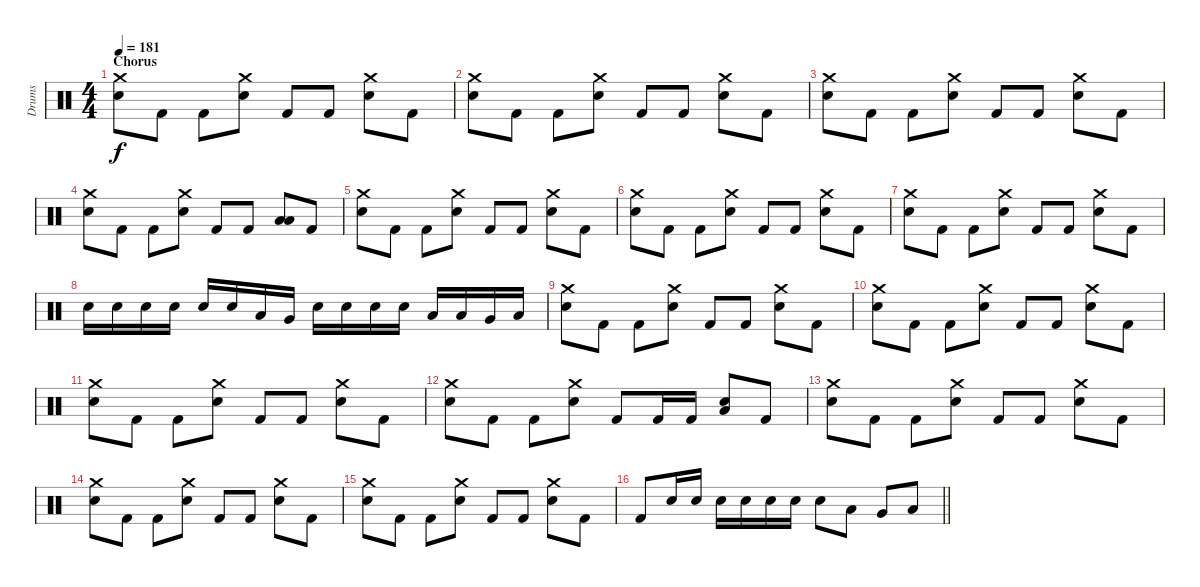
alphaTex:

\track ("Drums" "Drums") {instrument percussion}
\staff {score}
\articulation defaults
\ts (4 4)
\section ("" "Chorus")
\tempo 181
\clef neutral
\ks c
("Electric Snare (hit)" "Crash medium (hit)").8{dy f} "Kick (hit) 2".8 "Kick (hit) 2".8 ("Electric Snare (hit)" "Crash medium (hit)").8 "Kick (hit) 2".8 "Kick (hit) 2".8 ("Electric Snare (hit)" "Crash medium (hit)").8 "Kick (hit) 2".8 |
("Electric Snare (hit)" "Crash medium (hit)").8 "Kick (hit) 2".8 "Kick (hit) 2".8 ("Electric Snare (hit)" "Crash medium (hit)").8 "Kick (hit) 2".8 "Kick (hit) 2".8 ("Electric Snare (hit)" "Crash medium (hit)").8 "Kick (hit) 2".8 |
("Electric Snare (hit)" "Crash medium (hit)").8 "Kick (hit) 2".8 "Kick (hit) 2".8 ("Electric Snare (hit)" "Crash medium (hit)").8 "Kick (hit) 2".8 "Kick (hit) 2".8 ("Electric Snare (hit)" "Crash medium (hit)").8 "Kick (hit) 2".8 |
("Electric Snare (hit)" "Crash medium (hit)").8 "Kick (hit) 2".8 "Kick (hit) 2".8 ("Electric Snare (hit)" "Crash medium (hit)").8 "Kick (hit) 2".8 "Kick (hit) 2".8 ("Low Tom (hit)" "Low Floor Tom (hit)").8 "Kick (hit) 2".8 |
("Electric Snare (hit)" "Crash medium (hit)").8 "Kick (hit) 2".8 "Kick (hit) 2".8 ("Electric Snare (hit)" "Crash medium (hit)").8 "Kick (hit) 2".8 "Kick (hit) 2".8 ("Electric Snare (hit)" "Crash medium (hit)").8 "Kick (hit) 2".8 |
("Electric Snare (hit)" "Crash medium (hit)").8 "Kick (hit) 2".8 "Kick (hit) 2".8 ("Electric Snare (hit)" "Crash medium (hit)").8 "Kick (hit) 2".8 "Kick (hit) 2".8 ("Electric Snare (hit)" "Crash medium (hit)").8 "Kick (hit) 2".8 |
("Electric Snare (hit)" "Crash medium (hit)").8 "Kick (hit) 2".8 "Kick (hit) 2".8 ("Electric Snare (hit)" "Crash medium (hit)").8 "Kick (hit) 2".8 "Kick (hit) 2".8 ("Electric Snare (hit)" "Crash medium (hit)").8 "Kick (hit) 2".8 |
"Electric Snare (hit)".16 "Electric Snare (hit)".16 "Electric Snare (hit)".16 "Electric Snare (hit)".16 "Electric Snare (hit)".16 "Electric Snare (hit)".16 "Low Tom (hit)".16 "Very Low Tom (hit)".16 "Electric Snare (hit)".16 "Electric Snare (hit)".16 "Electric Snare (hit)".16 "Electric Snare (hit)".16 "Low Tom (hit)".16 "Low Tom (hit)".16 "Very Low Tom (hit)".16 "Low Floor Tom (hit)".16 |
("Electric Snare (hit)" "Crash medium (hit)").8 "Kick (hit) 2".8 "Kick (hit) 2".8 ("Electric Snare (hit)" "Crash medium (hit)").8 "Kick (hit) 2".8 "Kick (hit) 2".8 ("Electric Snare (hit)" "Crash medium (hit)").8 "Kick (hit) 2".8 |
("Electric Snare (hit)" "Crash medium (hit)").8 "Kick (hit) 2".8 "Kick (hit) 2".8 ("Electric Snare (hit)" "Crash medium (hit)").8 "Kick (hit) 2".8 "Kick (hit) 2".8 ("Electric Snare (hit)" "Crash medium (hit)").8 "Kick (hit) 2".8 |
("Electric Snare (hit)" "Crash medium (hit)").8 "Kick (hit) 2".8 "Kick (hit) 2".8 ("Electric Snare (hit)" "Crash medium (hit)").8 "Kick (hit) 2".8 "Kick (hit) 2".8 ("Electric Snare (hit)" "Crash medium (hit)").8 "Kick (hit) 2".8 |
("Electric Snare (hit)" "Crash medium (hit)").8 "Kick (hit) 2".8 "Kick (hit) 2".8 ("Electric Snare (hit)" "Crash medium (hit)").8 "Kick (hit) 2".8 "Kick (hit) 2".16 "Kick (hit) 2".16 ("Electric Snare (hit)" "Low Floor Tom (hit)").8 "Kick (hit) 2".8 |
("Electric Snare (hit)" "Crash medium (hit)").8 "Kick (hit) 2".8 "Kick (hit) 2".8 ("Electric Snare (hit)" "Crash medium (hit)").8 "Kick (hit) 2".8 "Kick (hit) 2".8 ("Electric Snare (hit)" "Crash medium (hit)").8 "Kick (hit) 2".8 |
("Electric Snare (hit)" "Crash medium (hit)").8 "Kick (hit) 2".8 "Kick (hit) 2".8 ("Electric Snare (hit)" "Crash medium (hit)").8 "Kick (hit) 2".8 "Kick (hit) 2".8 ("Electric Snare (hit)" "Crash medium (hit)").8 "Kick (hit) 2".8 |
("Electric Snare (hit)" "Crash medium (hit)").8 "Kick (hit) 2".8 "Kick (hit) 2".8 ("Electric Snare (hit)" "Crash medium (hit)").8 "Kick (hit) 2".8 "Kick (hit) 2".8 ("Electric Snare (hit)" "Crash medium (hit)").8 "Kick (hit) 2".8 |
\barLineRight lightlight "Kick (hit) 2".8 "Electric Snare (hit)".16 "Electric Snare (hit)".16 "Electric Snare (hit)".16 "Electric Snare (hit)".16 "Electric Snare (hit)".16 "Electric Snare (hit)".16 "Electric Snare (hit)".8 "Low Tom (hit)".8 "Very Low Tom (hit)".8 "Low Floor Tom (hit)".8
